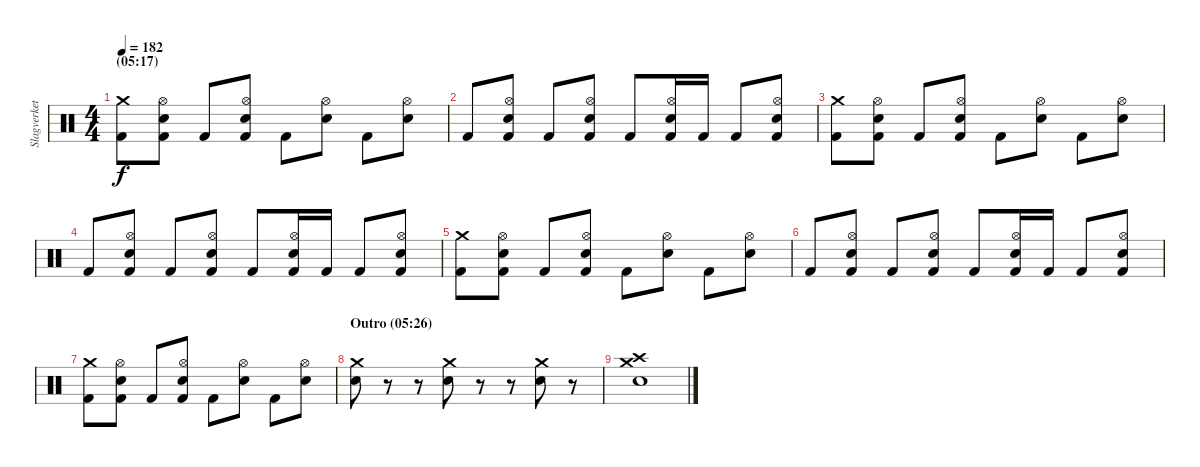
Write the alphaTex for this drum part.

\track ("Slagverket! =)" "Slagverket") {instrument percussion}
\staff {score}
\articulation defaults
\ts (4 4)
\section ("" "(05:17)")
\tempo 182
\clef neutral
\ks c
("Crash medium (hit)" "Kick (hit) 2").8{dy f} ("Hi-Hat (open)" "Snare (hit) 2" "Kick (hit) 2").8 "Kick (hit) 2".8 ("Hi-Hat (open)" "Snare (hit) 2" "Kick (hit) 2").8 "Kick (hit) 2".8 ("Hi-Hat (open)" "Snare (hit) 2").8 "Kick (hit) 2".8 ("Hi-Hat (open)" "Snare (hit) 2").8 |
"Kick (hit) 2".8 ("Hi-Hat (open)" "Snare (hit) 2" "Kick (hit) 2").8 "Kick (hit) 2".8 ("Hi-Hat (open)" "Snare (hit) 2" "Kick (hit) 2").8 "Kick (hit) 2".8 ("Hi-Hat (open)" "Snare (hit) 2" "Kick (hit) 2").16 "Kick (hit) 2".16 "Kick (hit) 2".8 ("Hi-Hat (open)" "Snare (hit) 2" "Kick (hit) 2").8 |
("Crash medium (hit)" "Kick (hit) 2").8 ("Hi-Hat (open)" "Snare (hit) 2" "Kick (hit) 2").8 "Kick (hit) 2".8 ("Hi-Hat (open)" "Snare (hit) 2" "Kick (hit) 2").8 "Kick (hit) 2".8 ("Hi-Hat (open)" "Snare (hit) 2").8 "Kick (hit) 2".8 ("Hi-Hat (open)" "Snare (hit) 2").8 |
"Kick (hit) 2".8 ("Hi-Hat (open)" "Snare (hit) 2" "Kick (hit) 2").8 "Kick (hit) 2".8 ("Hi-Hat (open)" "Snare (hit) 2" "Kick (hit) 2").8 "Kick (hit) 2".8 ("Hi-Hat (open)" "Snare (hit) 2" "Kick (hit) 2").16 "Kick (hit) 2".16 "Kick (hit) 2".8 ("Hi-Hat (open)" "Snare (hit) 2" "Kick (hit) 2").8 |
("Crash medium (hit)" "Kick (hit) 2").8 ("Hi-Hat (open)" "Snare (hit) 2" "Kick (hit) 2").8 "Kick (hit) 2".8 ("Hi-Hat (open)" "Snare (hit) 2" "Kick (hit) 2").8 "Kick (hit) 2".8 ("Hi-Hat (open)" "Snare (hit) 2").8 "Kick (hit) 2".8 ("Hi-Hat (open)" "Snare (hit) 2").8 |
"Kick (hit) 2".8 ("Hi-Hat (open)" "Snare (hit) 2" "Kick (hit) 2").8 "Kick (hit) 2".8 ("Hi-Hat (open)" "Snare (hit) 2" "Kick (hit) 2").8 "Kick (hit) 2".8 ("Hi-Hat (open)" "Snare (hit) 2" "Kick (hit) 2").16 "Kick (hit) 2".16 "Kick (hit) 2".8 ("Hi-Hat (open)" "Snare (hit) 2" "Kick (hit) 2").8 |
("Crash medium (hit)" "Kick (hit) 2").8 ("Hi-Hat (open)" "Snare (hit) 2" "Kick (hit) 2").8 "Kick (hit) 2".8 ("Hi-Hat (open)" "Snare (hit) 2" "Kick (hit) 2").8 "Kick (hit) 2".8 ("Hi-Hat (open)" "Snare (hit) 2").8 "Kick (hit) 2".8 ("Hi-Hat (open)" "Snare (hit) 2").8 |
\section ("" "Outro (05:26)")
("Crash medium (hit)" "Snare (hit) 2").8 r.8 r.8 ("Crash medium (hit)" "Snare (hit) 2").8 r.8 r.8 ("Crash medium (hit)" "Snare (hit) 2").8 r.8 |
("Crash medium (hit)" "Crash high (hit)" "Snare (hit) 2").1
